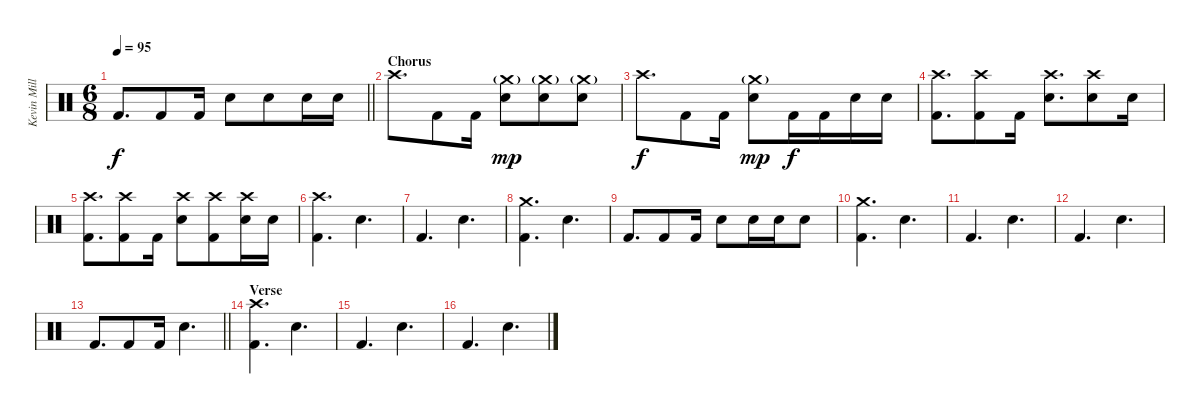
\track ("Kevin Miller (Drums)" "Kevin Mill") {instrument percussion}
\staff {score}
\articulation defaults
\ts (6 8)
\tempo 95
\clef neutral
\barLineRight lightlight
\ks c "Kick (hit) 2".8{d dy f} "Kick (hit) 2".8 "Kick (hit) 2".16 "Electric Snare (hit)".8 "Electric Snare (hit)".8 "Electric Snare (hit)".16 "Electric Snare (hit)".16
|
\section ("" "Chorus")
"Crash high (hit)".8{d} "Kick (hit) 2".8 "Kick (hit) 2".16 ("Electric Snare (hit)" "Crash medium (hit)"{g}).8{dy mp} ("Electric Snare (hit)" "Crash medium (hit)"{g}).8 ("Electric Snare (hit)" "Crash medium (hit)"{g}).8 |
"Crash high (hit)".8{d dy f} "Kick (hit) 2".8 "Kick (hit) 2".16 ("Electric Snare (hit)" "Crash medium (hit)"{g}).8{dy mp} "Kick (hit) 2".16{dy f} "Kick (hit) 2".16 "Electric Snare (hit)".16 "Electric Snare (hit)".16 |
("Kick (hit) 2" "Crash high (hit)").8{d} ("Kick (hit) 2" "Crash high (hit)").8 "Kick (hit) 2".16 ("Electric Snare (hit)" "Crash high (hit)").8{d} ("Electric Snare (hit)" "Crash high (hit)").8 "Electric Snare (hit)".16 |
("Kick (hit) 2" "Crash high (hit)").8{d} ("Kick (hit) 2" "Crash high (hit)").8 "Kick (hit) 2".16 ("Electric Snare (hit)" "Crash high (hit)").8 ("Kick (hit) 2" "Crash high (hit)").8 ("Electric Snare (hit)" "Crash high (hit)").16 "Electric Snare (hit)".16 |
("Crash high (hit)" "Kick (hit) 2").4{d} "Electric Snare (hit)".4{d} |
"Kick (hit) 2".4{d} "Electric Snare (hit)".4{d} |
("Crash medium (hit)" "Kick (hit) 2").4{d} "Electric Snare (hit)".4{d} |
"Kick (hit) 2".8{d} "Kick (hit) 2".8 "Kick (hit) 2".16 "Electric Snare (hit)".8 "Electric Snare (hit)".16 "Electric Snare (hit)".16 "Electric Snare (hit)".8 |
("Crash medium (hit)" "Kick (hit) 2").4{d} "Electric Snare (hit)".4{d} |
"Kick (hit) 2".4{d} "Electric Snare (hit)".4{d} |
"Kick (hit) 2".4{d} "Electric Snare (hit)".4{d} |
\barLineRight lightlight "Kick (hit) 2".8{d} "Kick (hit) 2".8 "Kick (hit) 2".16 "Electric Snare (hit)".4{d}
|
\section ("" "Verse")
("Crash high (hit)" "Kick (hit) 2").4{d} "Electric Snare (hit)".4{d} |
"Kick (hit) 2".4{d} "Electric Snare (hit)".4{d} |
"Kick (hit) 2".4{d} "Electric Snare (hit)".4{d}
